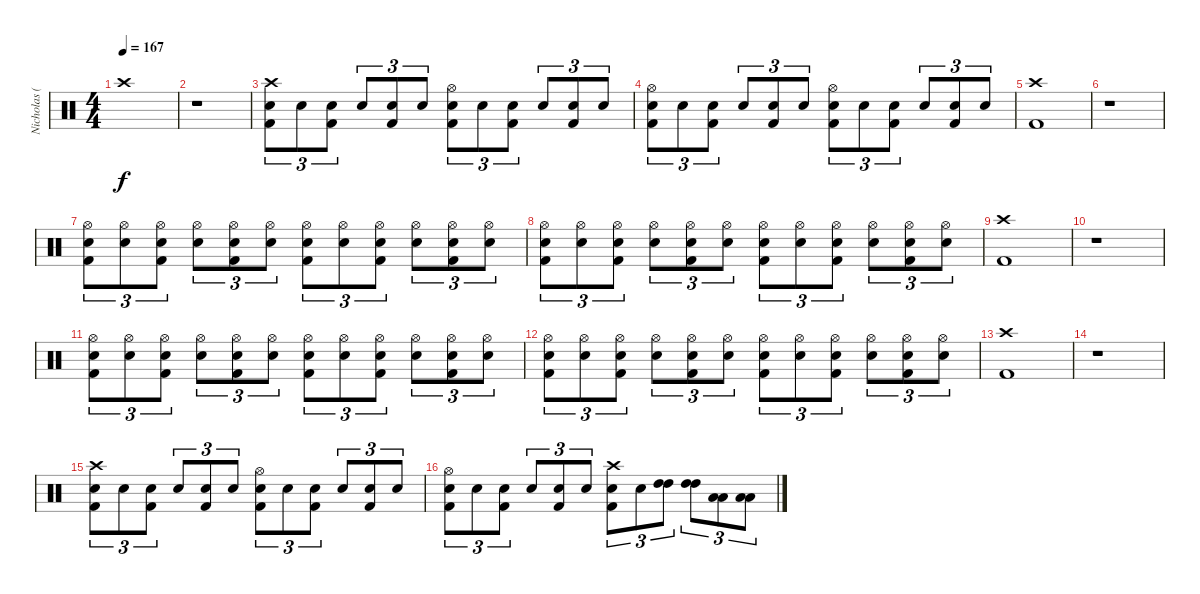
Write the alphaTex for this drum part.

\track ("Nicholas (Drums)" "Nicholas (") {instrument percussion}
\staff {score}
\articulation defaults
\ts (4 4)
\tempo 167
\clef neutral
\ks c "Crash high (hit)".1{dy f}
|
r.1 |
("Crash high (hit)" "Electric Snare (hit)" "Kick (hit) 2").8{tu (3 2)} "Electric Snare (hit)".8{tu (3 2)} ("Electric Snare (hit)" "Kick (hit) 2").8{tu (3 2)} "Electric Snare (hit)".8{tu (3 2)} ("Electric Snare (hit)" "Kick (hit) 2").8{tu (3 2)} "Electric Snare (hit)".8{tu (3 2)} ("Hi-Hat (open)" "Electric Snare (hit)" "Kick (hit) 2").8{tu (3 2)} "Electric Snare (hit)".8{tu (3 2)} ("Electric Snare (hit)" "Kick (hit) 2").8{tu (3 2)} "Electric Snare (hit)".8{tu (3 2)} ("Electric Snare (hit)" "Kick (hit) 2").8{tu (3 2)} "Electric Snare (hit)".8{tu (3 2)} |
("Hi-Hat (open)" "Electric Snare (hit)" "Kick (hit) 2").8{tu (3 2)} "Electric Snare (hit)".8{tu (3 2)} ("Electric Snare (hit)" "Kick (hit) 2").8{tu (3 2)} "Electric Snare (hit)".8{tu (3 2)} ("Electric Snare (hit)" "Kick (hit) 2").8{tu (3 2)} "Electric Snare (hit)".8{tu (3 2)} ("Hi-Hat (open)" "Electric Snare (hit)" "Kick (hit) 2").8{tu (3 2)} "Electric Snare (hit)".8{tu (3 2)} ("Electric Snare (hit)" "Kick (hit) 2").8{tu (3 2)} "Electric Snare (hit)".8{tu (3 2)} ("Electric Snare (hit)" "Kick (hit) 2").8{tu (3 2)} "Electric Snare (hit)".8{tu (3 2)} |
("Crash high (hit)" "Kick (hit) 2").1 |
r.1 |
("Hi-Hat (open)" "Electric Snare (hit)" "Kick (hit) 2").8{tu (3 2)} ("Hi-Hat (open)" "Electric Snare (hit)").8{tu (3 2)} ("Hi-Hat (open)" "Electric Snare (hit)" "Kick (hit) 2").8{tu (3 2)} ("Hi-Hat (open)" "Electric Snare (hit)").8{tu (3 2)} ("Hi-Hat (open)" "Electric Snare (hit)" "Kick (hit) 2").8{tu (3 2)} ("Hi-Hat (open)" "Electric Snare (hit)").8{tu (3 2)} ("Hi-Hat (open)" "Electric Snare (hit)" "Kick (hit) 2").8{tu (3 2)} ("Hi-Hat (open)" "Electric Snare (hit)").8{tu (3 2)} ("Hi-Hat (open)" "Electric Snare (hit)" "Kick (hit) 2").8{tu (3 2)} ("Hi-Hat (open)" "Electric Snare (hit)").8{tu (3 2)} ("Hi-Hat (open)" "Electric Snare (hit)" "Kick (hit) 2").8{tu (3 2)} ("Hi-Hat (open)" "Electric Snare (hit)").8{tu (3 2)} |
("Hi-Hat (open)" "Electric Snare (hit)" "Kick (hit) 2").8{tu (3 2)} ("Hi-Hat (open)" "Electric Snare (hit)").8{tu (3 2)} ("Hi-Hat (open)" "Electric Snare (hit)" "Kick (hit) 2").8{tu (3 2)} ("Hi-Hat (open)" "Electric Snare (hit)").8{tu (3 2)} ("Hi-Hat (open)" "Electric Snare (hit)" "Kick (hit) 2").8{tu (3 2)} ("Hi-Hat (open)" "Electric Snare (hit)").8{tu (3 2)} ("Hi-Hat (open)" "Electric Snare (hit)" "Kick (hit) 2").8{tu (3 2)} ("Hi-Hat (open)" "Electric Snare (hit)").8{tu (3 2)} ("Hi-Hat (open)" "Electric Snare (hit)" "Kick (hit) 2").8{tu (3 2)} ("Hi-Hat (open)" "Electric Snare (hit)").8{tu (3 2)} ("Hi-Hat (open)" "Electric Snare (hit)" "Kick (hit) 2").8{tu (3 2)} ("Hi-Hat (open)" "Electric Snare (hit)").8{tu (3 2)} |
("Crash high (hit)" "Kick (hit) 2").1 |
r.1 |
("Hi-Hat (open)" "Electric Snare (hit)" "Kick (hit) 2").8{tu (3 2)} ("Hi-Hat (open)" "Electric Snare (hit)").8{tu (3 2)} ("Hi-Hat (open)" "Electric Snare (hit)" "Kick (hit) 2").8{tu (3 2)} ("Hi-Hat (open)" "Electric Snare (hit)").8{tu (3 2)} ("Hi-Hat (open)" "Electric Snare (hit)" "Kick (hit) 2").8{tu (3 2)} ("Hi-Hat (open)" "Electric Snare (hit)").8{tu (3 2)} ("Hi-Hat (open)" "Electric Snare (hit)" "Kick (hit) 2").8{tu (3 2)} ("Hi-Hat (open)" "Electric Snare (hit)").8{tu (3 2)} ("Hi-Hat (open)" "Electric Snare (hit)" "Kick (hit) 2").8{tu (3 2)} ("Hi-Hat (open)" "Electric Snare (hit)").8{tu (3 2)} ("Hi-Hat (open)" "Electric Snare (hit)" "Kick (hit) 2").8{tu (3 2)} ("Hi-Hat (open)" "Electric Snare (hit)").8{tu (3 2)} |
("Hi-Hat (open)" "Electric Snare (hit)" "Kick (hit) 2").8{tu (3 2)} ("Hi-Hat (open)" "Electric Snare (hit)").8{tu (3 2)} ("Hi-Hat (open)" "Electric Snare (hit)" "Kick (hit) 2").8{tu (3 2)} ("Hi-Hat (open)" "Electric Snare (hit)").8{tu (3 2)} ("Hi-Hat (open)" "Electric Snare (hit)" "Kick (hit) 2").8{tu (3 2)} ("Hi-Hat (open)" "Electric Snare (hit)").8{tu (3 2)} ("Hi-Hat (open)" "Electric Snare (hit)" "Kick (hit) 2").8{tu (3 2)} ("Hi-Hat (open)" "Electric Snare (hit)").8{tu (3 2)} ("Hi-Hat (open)" "Electric Snare (hit)" "Kick (hit) 2").8{tu (3 2)} ("Hi-Hat (open)" "Electric Snare (hit)").8{tu (3 2)} ("Hi-Hat (open)" "Electric Snare (hit)" "Kick (hit) 2").8{tu (3 2)} ("Hi-Hat (open)" "Electric Snare (hit)").8{tu (3 2)} |
("Crash high (hit)" "Kick (hit) 2").1 |
r.1 |
("Crash high (hit)" "Electric Snare (hit)" "Kick (hit) 2").8{tu (3 2)} "Electric Snare (hit)".8{tu (3 2)} ("Electric Snare (hit)" "Kick (hit) 2").8{tu (3 2)} "Electric Snare (hit)".8{tu (3 2)} ("Electric Snare (hit)" "Kick (hit) 2").8{tu (3 2)} "Electric Snare (hit)".8{tu (3 2)} ("Hi-Hat (open)" "Electric Snare (hit)" "Kick (hit) 2").8{tu (3 2)} "Electric Snare (hit)".8{tu (3 2)} ("Electric Snare (hit)" "Kick (hit) 2").8{tu (3 2)} "Electric Snare (hit)".8{tu (3 2)} ("Electric Snare (hit)" "Kick (hit) 2").8{tu (3 2)} "Electric Snare (hit)".8{tu (3 2)} |
("Hi-Hat (open)" "Electric Snare (hit)" "Kick (hit) 2").8{tu (3 2)} "Electric Snare (hit)".8{tu (3 2)} ("Electric Snare (hit)" "Kick (hit) 2").8{tu (3 2)} "Electric Snare (hit)".8{tu (3 2)} ("Electric Snare (hit)" "Kick (hit) 2").8{tu (3 2)} "Electric Snare (hit)".8{tu (3 2)} ("Crash high (hit)" "Electric Snare (hit)" "Kick (hit) 2").8{tu (3 2)} "Electric Snare (hit)".8{tu (3 2)} ("High Tom (hit)" "High Tom (hit)").8{tu (3 2) balance 5} ("High Tom (hit)" "High Tom (hit)").8{tu (3 2)} ("Low Tom (hit)" "Low Tom (hit)").8{tu (3 2) balance 9} ("Low Tom (hit)" "Low Tom (hit)").8{tu (3 2)}
